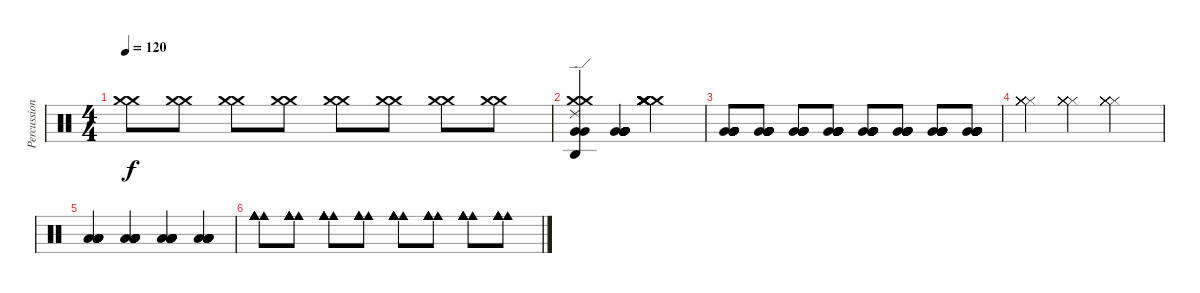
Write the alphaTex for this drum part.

\track ("Percussion" "Percussion") {instrument percussion}
\staff {score}
\articulation defaults
\ts (4 4)
\tempo 120
\clef neutral
\ks c
("Crash medium (hit)" "Crash medium (hit)").8{dy f} ("Crash medium (hit)" "Crash medium (hit)").8 ("Crash medium (hit)" "Crash medium (hit)").8 ("Crash medium (hit)" "Crash medium (hit)").8 ("Crash medium (hit)" "Crash medium (hit)").8 ("Crash medium (hit)" "Crash medium (hit)").8 ("Crash medium (hit)" "Crash medium (hit)").8 ("Crash medium (hit)" "Crash medium (hit)").8 |
("Very Low Tom (hit)" "Crash medium (hit)" "Very Low Tom (hit)" "Crash medium (hit)" "Ride (edge) 2" "Agogo high (hit)").4 ("Very Low Tom (hit)" "Very Low Tom (hit)" "Very Low Tom (hit)" "Very Low Tom (hit)" "Very Low Tom (hit)" "Very Low Tom (hit)").4 ("Crash medium (hit)" "Crash medium (hit)" "Crash medium (hit)" "Crash medium (hit)" "Crash medium (hit)" "Crash medium (hit)").2 |
("Very Low Tom (hit)" "Very Low Tom (hit)" "Very Low Tom (hit)" "Very Low Tom (hit)" "Very Low Tom (hit)" "Very Low Tom (hit)").8 ("Very Low Tom (hit)" "Very Low Tom (hit)" "Very Low Tom (hit)" "Very Low Tom (hit)" "Very Low Tom (hit)" "Very Low Tom (hit)").8 ("Very Low Tom (hit)" "Very Low Tom (hit)" "Very Low Tom (hit)" "Very Low Tom (hit)" "Very Low Tom (hit)" "Very Low Tom (hit)").8 ("Very Low Tom (hit)" "Very Low Tom (hit)" "Very Low Tom (hit)" "Very Low Tom (hit)" "Very Low Tom (hit)" "Very Low Tom (hit)").8 ("Very Low Tom (hit)" "Very Low Tom (hit)" "Very Low Tom (hit)" "Very Low Tom (hit)" "Very Low Tom (hit)" "Very Low Tom (hit)").8 ("Very Low Tom (hit)" "Very Low Tom (hit)" "Very Low Tom (hit)" "Very Low Tom (hit)" "Very Low Tom (hit)" "Very Low Tom (hit)").8 ("Very Low Tom (hit)" "Very Low Tom (hit)" "Very Low Tom (hit)" "Very Low Tom (hit)" "Very Low Tom (hit)" "Very Low Tom (hit)").8 ("Very Low Tom (hit)" "Very Low Tom (hit)" "Very Low Tom (hit)" "Very Low Tom (hit)" "Very Low Tom (hit)" "Very Low Tom (hit)").8 |
("Hi-Hat (closed)" "Hi-Hat (closed)" "Hi-Hat (closed)" "Hi-Hat (closed)" "Hi-Hat (closed)" "Hi-Hat (closed)").4 ("Hi-Hat (closed)" "Hi-Hat (closed)" "Hi-Hat (closed)" "Hi-Hat (closed)" "Hi-Hat (closed)" "Hi-Hat (closed)").4 ("Hi-Hat (closed)" "Hi-Hat (closed)" "Hi-Hat (closed)" "Hi-Hat (closed)" "Hi-Hat (closed)" "Hi-Hat (closed)").2 |
("Low Tom (hit)" "Low Tom (hit)" "Low Tom (hit)" "Low Tom (hit)" "Low Tom (hit)" "Low Tom (hit)").4 ("Low Tom (hit)" "Low Tom (hit)" "Low Tom (hit)" "Low Tom (hit)" "Low Tom (hit)" "Low Tom (hit)").4 ("Low Tom (hit)" "Low Tom (hit)" "Low Tom (hit)" "Low Tom (hit)" "Low Tom (hit)" "Low Tom (hit)").4 ("Low Tom (hit)" "Low Tom (hit)" "Low Tom (hit)" "Low Tom (hit)" "Low Tom (hit)" "Low Tom (hit)").4 |
("Cowbell medium (hit)" "Cowbell medium (hit)" "Cowbell medium (hit)" "Cowbell medium (hit)" "Cowbell medium (hit)" "Cowbell medium (hit)").8 ("Cowbell medium (hit)" "Cowbell medium (hit)" "Cowbell medium (hit)" "Cowbell medium (hit)" "Cowbell medium (hit)" "Cowbell medium (hit)").8 ("Cowbell medium (hit)" "Cowbell medium (hit)" "Cowbell medium (hit)" "Cowbell medium (hit)" "Cowbell medium (hit)" "Cowbell medium (hit)").8 ("Cowbell medium (hit)" "Cowbell medium (hit)" "Cowbell medium (hit)" "Cowbell medium (hit)" "Cowbell medium (hit)" "Cowbell medium (hit)").8 ("Cowbell medium (hit)" "Cowbell medium (hit)" "Cowbell medium (hit)" "Cowbell medium (hit)" "Cowbell medium (hit)" "Cowbell medium (hit)").8 ("Cowbell medium (hit)" "Cowbell medium (hit)" "Cowbell medium (hit)" "Cowbell medium (hit)" "Cowbell medium (hit)" "Cowbell medium (hit)").8 ("Cowbell medium (hit)" "Cowbell medium (hit)" "Cowbell medium (hit)" "Cowbell medium (hit)" "Cowbell medium (hit)" "Cowbell medium (hit)").8 ("Cowbell medium (hit)" "Cowbell medium (hit)" "Cowbell medium (hit)" "Cowbell medium (hit)" "Cowbell medium (hit)" "Cowbell medium (hit)").8
